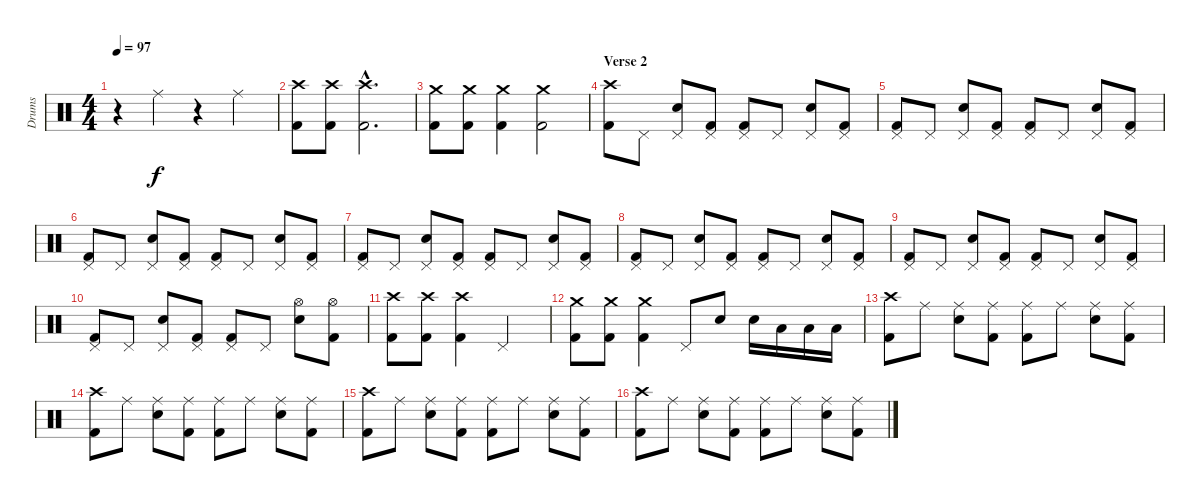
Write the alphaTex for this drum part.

\track ("Drums" "Drums") {instrument percussion}
\staff {score}
\articulation defaults
\ts (4 4)
\tempo 97
\clef neutral
\ks c
r.4{dy f} "Ride (middle)".4 r.4 "Ride (middle)".4 |
("Crash high (hit)" "Kick (hit) 2").8 ("Crash high (hit)" "Kick (hit) 2").8 ("Crash high (hit)"{hac} "Kick (hit) 2"{hac}).2{d} |
("Crash medium (hit)" "Kick (hit) 2").8 ("Crash medium (hit)" "Kick (hit) 2").8 ("Crash medium (hit)" "Kick (hit) 2").4 ("Crash medium (hit)" "Kick (hit) 2").2 |
\section ("" "Verse 2")
("Crash high (hit)" "Kick (hit) 2").8 "Pedal Hi-Hat (hit)".8 ("Pedal Hi-Hat (hit)" "Snare (hit) 2").8 ("Pedal Hi-Hat (hit)" "Kick (hit) 2").8 ("Pedal Hi-Hat (hit)" "Kick (hit) 2").8 "Pedal Hi-Hat (hit)".8 ("Pedal Hi-Hat (hit)" "Snare (hit) 2").8 ("Pedal Hi-Hat (hit)" "Kick (hit) 2").8 |
("Pedal Hi-Hat (hit)" "Kick (hit) 2").8 "Pedal Hi-Hat (hit)".8 ("Pedal Hi-Hat (hit)" "Snare (hit) 2").8 ("Pedal Hi-Hat (hit)" "Kick (hit) 2").8 ("Pedal Hi-Hat (hit)" "Kick (hit) 2").8 "Pedal Hi-Hat (hit)".8 ("Pedal Hi-Hat (hit)" "Snare (hit) 2").8 ("Pedal Hi-Hat (hit)" "Kick (hit) 2").8 |
("Pedal Hi-Hat (hit)" "Kick (hit) 2").8 "Pedal Hi-Hat (hit)".8 ("Pedal Hi-Hat (hit)" "Snare (hit) 2").8 ("Pedal Hi-Hat (hit)" "Kick (hit) 2").8 ("Pedal Hi-Hat (hit)" "Kick (hit) 2").8 "Pedal Hi-Hat (hit)".8 ("Pedal Hi-Hat (hit)" "Snare (hit) 2").8 ("Pedal Hi-Hat (hit)" "Kick (hit) 2").8 |
("Pedal Hi-Hat (hit)" "Kick (hit) 2").8 "Pedal Hi-Hat (hit)".8 ("Pedal Hi-Hat (hit)" "Snare (hit) 2").8 ("Pedal Hi-Hat (hit)" "Kick (hit) 2").8 ("Pedal Hi-Hat (hit)" "Kick (hit) 2").8 "Pedal Hi-Hat (hit)".8 ("Pedal Hi-Hat (hit)" "Snare (hit) 2").8 ("Pedal Hi-Hat (hit)" "Kick (hit) 2").8 |
("Pedal Hi-Hat (hit)" "Kick (hit) 2").8 "Pedal Hi-Hat (hit)".8 ("Pedal Hi-Hat (hit)" "Snare (hit) 2").8 ("Pedal Hi-Hat (hit)" "Kick (hit) 2").8 ("Pedal Hi-Hat (hit)" "Kick (hit) 2").8 "Pedal Hi-Hat (hit)".8 ("Pedal Hi-Hat (hit)" "Snare (hit) 2").8 ("Pedal Hi-Hat (hit)" "Kick (hit) 2").8 |
("Pedal Hi-Hat (hit)" "Kick (hit) 2").8 "Pedal Hi-Hat (hit)".8 ("Pedal Hi-Hat (hit)" "Snare (hit) 2").8 ("Pedal Hi-Hat (hit)" "Kick (hit) 2").8 ("Pedal Hi-Hat (hit)" "Kick (hit) 2").8 "Pedal Hi-Hat (hit)".8 ("Pedal Hi-Hat (hit)" "Snare (hit) 2").8 ("Pedal Hi-Hat (hit)" "Kick (hit) 2").8 |
("Pedal Hi-Hat (hit)" "Kick (hit) 2").8 "Pedal Hi-Hat (hit)".8 ("Pedal Hi-Hat (hit)" "Snare (hit) 2").8 ("Pedal Hi-Hat (hit)" "Kick (hit) 2").8 ("Pedal Hi-Hat (hit)" "Kick (hit) 2").8 "Pedal Hi-Hat (hit)".8 ("Hi-Hat (open)" "Snare (hit) 2").8 ("Hi-Hat (open)" "Kick (hit) 2").8 |
("Crash high (hit)" "Kick (hit) 2").8 ("Crash high (hit)" "Kick (hit) 2").8 ("Crash high (hit)" "Kick (hit) 2").4 "Pedal Hi-Hat (hit)".2 |
("Crash medium (hit)" "Kick (hit) 2").8 ("Crash medium (hit)" "Kick (hit) 2").8 ("Crash medium (hit)" "Kick (hit) 2").4 "Pedal Hi-Hat (hit)".8 "Snare (hit) 2".8 "Snare (hit) 2".16 "Low Tom (hit)".16 "Low Tom (hit)".16 "Low Tom (hit)".16 |
("Crash high (hit)" "Kick (hit) 2").8 "Ride (middle)".8 ("Ride (middle)" "Snare (hit) 2").8 ("Ride (middle)" "Kick (hit) 2").8 ("Ride (middle)" "Kick (hit) 2").8 "Ride (middle)".8 ("Ride (middle)" "Snare (hit) 2").8 ("Ride (middle)" "Kick (hit) 2").8 |
("Crash high (hit)" "Kick (hit) 2").8 "Ride (middle)".8 ("Ride (middle)" "Snare (hit) 2").8 ("Ride (middle)" "Kick (hit) 2").8 ("Ride (middle)" "Kick (hit) 2").8 "Ride (middle)".8 ("Ride (middle)" "Snare (hit) 2").8 ("Ride (middle)" "Kick (hit) 2").8 |
("Crash high (hit)" "Kick (hit) 2").8 "Ride (middle)".8 ("Ride (middle)" "Snare (hit) 2").8 ("Ride (middle)" "Kick (hit) 2").8 ("Ride (middle)" "Kick (hit) 2").8 "Ride (middle)".8 ("Ride (middle)" "Snare (hit) 2").8 ("Ride (middle)" "Kick (hit) 2").8 |
("Crash high (hit)" "Kick (hit) 2").8 "Ride (middle)".8 ("Ride (middle)" "Snare (hit) 2").8 ("Ride (middle)" "Kick (hit) 2").8 ("Ride (middle)" "Kick (hit) 2").8 "Ride (middle)".8 ("Ride (middle)" "Snare (hit) 2").8 ("Ride (middle)" "Kick (hit) 2").8
